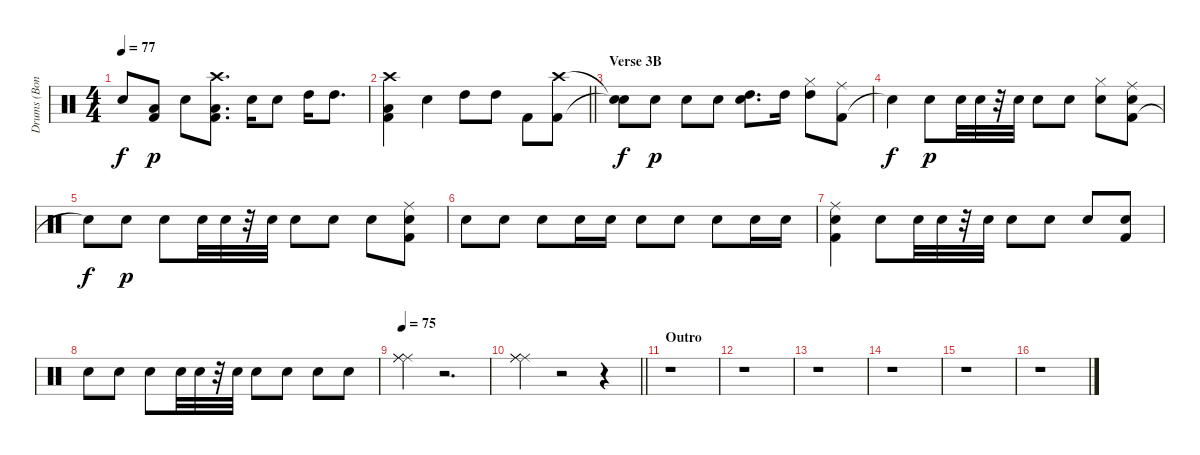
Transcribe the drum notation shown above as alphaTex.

\track ("Drums (Bonham)" "Drums (Bon") {instrument percussion}
\staff {score}
\articulation defaults
\ts (4 4)
\tempo 77
\clef neutral
\ks c "Snare (hit)"{t}.8{dy f}
("Kick (hit) 2" "Low Tom (hit)").8{dy p} "Snare (hit) 2".8 ("Kick (hit) 2" "Low Tom (hit)" "Crash high (hit)").8{d} "Snare (hit) 2".16 "Snare (hit) 2".8 "High Tom (hit)".16 "High Tom (hit)".8{d} |
\barLineRight lightlight
("Kick (hit) 2" "Low Tom (hit)" "Crash high (hit)").4 "Snare (hit) 2".4 "High Tom (hit)".8 "High Tom (hit)".8 "Kick (hit) 2".8 ("Kick (hit) 2" "Crash high (hit)").8 |
\section ("" "Verse 3B")
("Snare (hit)"{t} "Snare (hit)"{t}).8{dy f} "Snare (hit) 2".8{dy p} "Snare (hit) 2".8 "Snare (hit) 2".8 ("Snare (hit) 2" "High Tom (hit)").8{d} "High Tom (hit)".16 ("Hi-Hat (closed)" "High Tom (hit)").8 ("Kick (hit) 2" "Ride (middle)").8 |
"Snare (hit)"{t}.4{dy f} "Snare (hit) 2".8{dy p} "Snare (hit) 2".32 "Snare (hit) 2".32 r.32 "Snare (hit) 2".32 "Snare (hit) 2".8 "Snare (hit) 2".8 ("Snare (hit) 2" "Hi-Hat (closed)").8 ("Kick (hit) 2" "Snare (hit) 2" "Ride (middle)").8 |
"Snare (hit)"{t}.8{dy f} "Snare (hit) 2".8{dy p} "Snare (hit) 2".8 "Snare (hit) 2".32 "Snare (hit) 2".32 r.32 "Snare (hit) 2".32 "Snare (hit) 2".8 "Snare (hit) 2".8 "Snare (hit) 2".8 ("Kick (hit) 2" "Snare (hit) 2" "Ride (middle)").8 |
"Snare (hit) 2".8 "Snare (hit) 2".8 "Snare (hit) 2".8 "Snare (hit) 2".16 "Snare (hit) 2".16 "Snare (hit) 2".8 "Snare (hit) 2".8 "Snare (hit) 2".8 "Snare (hit) 2".16 "Snare (hit) 2".16 |
("Kick (hit) 2" "Snare (hit) 2" "Ride (middle)").4 "Snare (hit) 2".8 "Snare (hit) 2".32 "Snare (hit) 2".32 r.32 "Snare (hit) 2".32 "Snare (hit) 2".8 "Snare (hit) 2".8 "Snare (hit) 2".8 ("Kick (hit) 2" "Snare (hit) 2").8 |
"Snare (hit) 2".8 "Snare (hit) 2".8 "Snare (hit) 2".8 "Snare (hit) 2".32 "Snare (hit) 2".32 r.32 "Snare (hit) 2".32 "Snare (hit) 2".8 "Snare (hit) 2".8 "Snare (hit) 2".8 "Snare (hit) 2".8 |
\tempo 75
("Ride (middle)" "Ride (middle)" "Ride (middle)").4 r.2{d} |
\barLineRight lightlight
("Ride (middle)" "Ride (middle)" "Ride (middle)").4 r.2 r.4 |
\section ("" "Outro")
r.1 |
r.1 |
r.1 |
r.1 |
r.1 |
r.1
